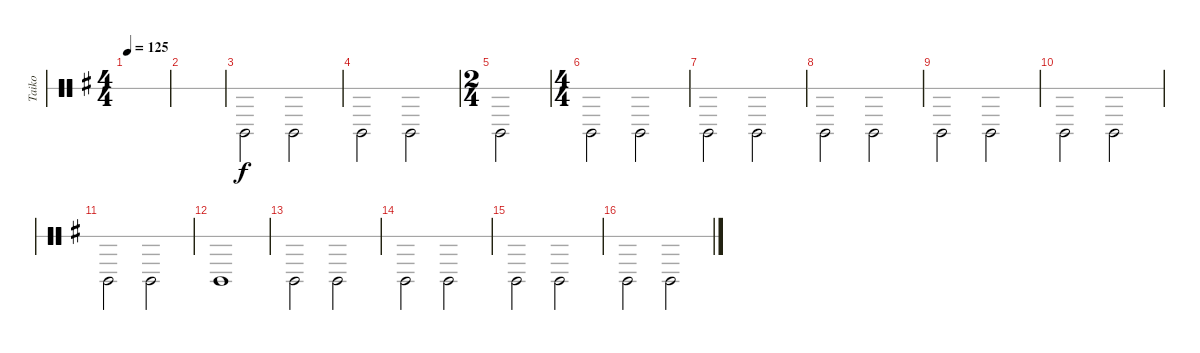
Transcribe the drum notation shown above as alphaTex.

\defaultSystemsLayout 4
\bracketExtendMode groupsimilarinstruments
\otherSystemsTrackNameOrientation horizontal
\track ("Taiko Drum" "Taiko") {instrument percussion}
\staff {score 1}
\articulation defaults
\ts (4 4)
\tempo 125
\clef neutral
\scale
0.333333
\ks g
|
\scale
0.333333 |
\scale
0.262911 "Timbale low (hit)"{acc forcenatural}.2{beam Down} "Timbale low (hit)"{acc forcenatural}.2{beam Down} |
\scale
0.262911 "Timbale low (hit)"{acc forcenatural}.2{beam Down} "Timbale low (hit)"{acc forcenatural}.2{beam Down} |
\ts (2 4)
\scale
0.474178 "Timbale low (hit)"{acc forcenatural}.2{beam Down} |
\ts (4 4)
\scale
0.474178 "Timbale low (hit)"{acc forcenatural}.2{beam Down} "Timbale low (hit)"{acc forcenatural}.2{beam Down} |
\scale
0.262911 "Timbale low (hit)"{acc forcenatural}.2{beam Down} "Timbale low (hit)"{acc forcenatural}.2{beam Down} |
\scale
0.262911 "Timbale low (hit)"{acc forcenatural}.2{beam Down} "Timbale low (hit)"{acc forcenatural}.2{beam Down} |
\scale
0.333333 "Timbale low (hit)"{acc forcenatural}.2{beam Down} "Timbale low (hit)"{acc forcenatural}.2{beam Down} |
\scale
0.333333 "Timbale low (hit)"{acc forcenatural}.2{beam Down} "Timbale low (hit)"{acc forcenatural}.2{beam Down} |
\scale
0.333333 "Timbale low (hit)"{acc forcenatural}.2{beam Down} "Timbale low (hit)"{acc forcenatural}.2{beam Down} |
\scale
0.333333 "Timbale low (hit)"{acc forcenatural}.1{beam Down} |
\scale
0.333333 "Timbale low (hit)"{acc forcenatural}.2{beam Down} "Timbale low (hit)"{acc forcenatural}.2{beam Down} |
\scale
0.333333 "Timbale low (hit)"{acc forcenatural}.2{beam Down} "Timbale low (hit)"{acc forcenatural}.2{beam Down} |
\scale
0.333333 "Timbale low (hit)"{acc forcenatural}.2{beam Down} "Timbale low (hit)"{acc forcenatural}.2{beam Down} |
\scale
0.333333 "Timbale low (hit)"{acc forcenatural}.2{beam Down} "Timbale low (hit)"{acc forcenatural}.2{beam Down}
